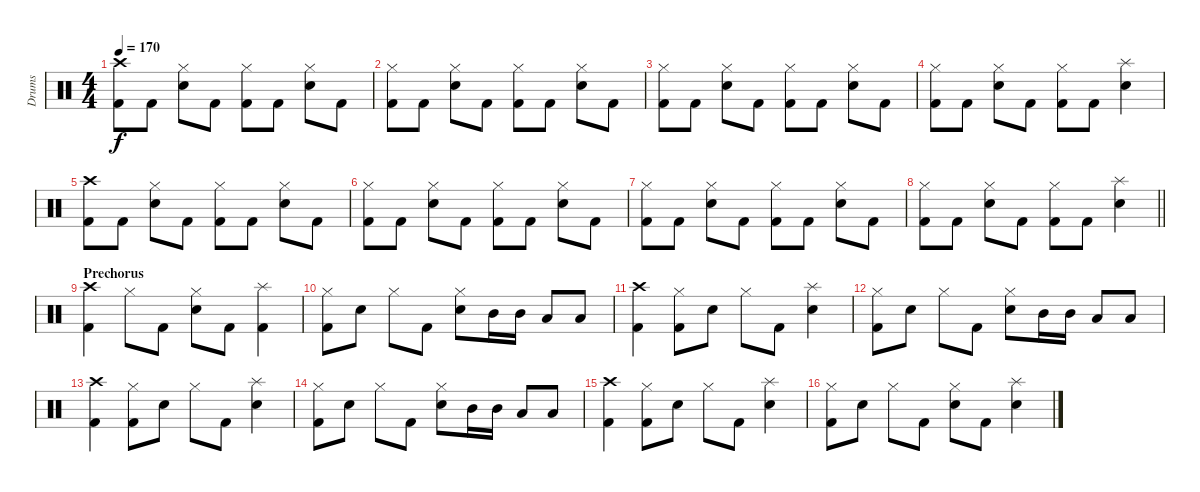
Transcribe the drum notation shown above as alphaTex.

\track ("Drums" "Drums") {instrument percussion}
\staff {score}
\articulation defaults
\ts (4 4)
\tempo 170
\clef neutral
\ks c
("Kick (hit) 2" "Crash high (hit)").8{dy f} "Kick (hit) 2".8 ("Hi-Hat (closed)" "Electric Snare (hit)").8 "Kick (hit) 2".8 ("Kick (hit) 2" "Hi-Hat (closed)").8 "Kick (hit) 2".8 ("Hi-Hat (closed)" "Electric Snare (hit)").8 "Kick (hit) 2".8 |
("Kick (hit) 2" "Hi-Hat (closed)").8 "Kick (hit) 2".8 ("Hi-Hat (closed)" "Electric Snare (hit)").8 "Kick (hit) 2".8 ("Kick (hit) 2" "Hi-Hat (closed)").8 "Kick (hit) 2".8 ("Hi-Hat (closed)" "Electric Snare (hit)").8 "Kick (hit) 2".8 |
("Kick (hit) 2" "Hi-Hat (closed)").8 "Kick (hit) 2".8 ("Hi-Hat (closed)" "Electric Snare (hit)").8 "Kick (hit) 2".8 ("Kick (hit) 2" "Hi-Hat (closed)").8 "Kick (hit) 2".8 ("Hi-Hat (closed)" "Electric Snare (hit)").8 "Kick (hit) 2".8 |
("Kick (hit) 2" "Hi-Hat (closed)").8 "Kick (hit) 2".8 ("Hi-Hat (closed)" "Electric Snare (hit)").8 "Kick (hit) 2".8 ("Kick (hit) 2" "Hi-Hat (closed)").8 "Kick (hit) 2".8 ("Splash (hit)" "Electric Snare (hit)").4 |
("Kick (hit) 2" "Crash high (hit)").8 "Kick (hit) 2".8 ("Hi-Hat (closed)" "Electric Snare (hit)").8 "Kick (hit) 2".8 ("Kick (hit) 2" "Hi-Hat (closed)").8 "Kick (hit) 2".8 ("Hi-Hat (closed)" "Electric Snare (hit)").8 "Kick (hit) 2".8 |
("Kick (hit) 2" "Hi-Hat (closed)").8 "Kick (hit) 2".8 ("Hi-Hat (closed)" "Electric Snare (hit)").8 "Kick (hit) 2".8 ("Kick (hit) 2" "Hi-Hat (closed)").8 "Kick (hit) 2".8 ("Hi-Hat (closed)" "Electric Snare (hit)").8 "Kick (hit) 2".8 |
("Kick (hit) 2" "Hi-Hat (closed)").8 "Kick (hit) 2".8 ("Hi-Hat (closed)" "Electric Snare (hit)").8 "Kick (hit) 2".8 ("Kick (hit) 2" "Hi-Hat (closed)").8 "Kick (hit) 2".8 ("Hi-Hat (closed)" "Electric Snare (hit)").8 "Kick (hit) 2".8 |
\barLineRight lightlight
("Kick (hit) 2" "Hi-Hat (closed)").8 "Kick (hit) 2".8 ("Hi-Hat (closed)" "Electric Snare (hit)").8 "Kick (hit) 2".8 ("Kick (hit) 2" "Hi-Hat (closed)").8 "Kick (hit) 2".8 ("Splash (hit)" "Electric Snare (hit)").4 |
\section ("" "Prechorus")
("Kick (hit) 2" "Crash high (hit)").4 "Hi-Hat (closed)".8 "Kick (hit) 2".8 ("Hi-Hat (closed)" "Electric Snare (hit)").8 "Kick (hit) 2".8 ("Kick (hit) 2" "Splash (hit)").4 |
("Kick (hit) 2" "Hi-Hat (closed)").8 "Electric Snare (hit)".8 "Hi-Hat (closed)".8 "Kick (hit) 2".8 ("Hi-Hat (closed)" "Electric Snare (hit)").8 "Mid Tom (hit)".16 "Mid Tom (hit)".16 "Low Tom (hit)".8 "Low Tom (hit)".8 |
("Kick (hit) 2" "Crash high (hit)").4 ("Kick (hit) 2" "Hi-Hat (closed)").8 "Electric Snare (hit)".8 "Hi-Hat (closed)".8 "Kick (hit) 2".8 ("Splash (hit)" "Electric Snare (hit)").4 |
("Kick (hit) 2" "Hi-Hat (closed)").8 "Electric Snare (hit)".8 "Hi-Hat (closed)".8 "Kick (hit) 2".8 ("Hi-Hat (closed)" "Electric Snare (hit)").8 "Mid Tom (hit)".16 "Mid Tom (hit)".16 "Low Tom (hit)".8 "Low Tom (hit)".8 |
("Kick (hit) 2" "Crash high (hit)").4 ("Kick (hit) 2" "Hi-Hat (closed)").8 "Electric Snare (hit)".8 "Hi-Hat (closed)".8 "Kick (hit) 2".8 ("Splash (hit)" "Electric Snare (hit)").4 |
("Kick (hit) 2" "Hi-Hat (closed)").8 "Electric Snare (hit)".8 "Hi-Hat (closed)".8 "Kick (hit) 2".8 ("Hi-Hat (closed)" "Electric Snare (hit)").8 "Mid Tom (hit)".16 "Mid Tom (hit)".16 "Low Tom (hit)".8 "Low Tom (hit)".8 |
("Kick (hit) 2" "Crash high (hit)").4 ("Kick (hit) 2" "Hi-Hat (closed)").8 "Electric Snare (hit)".8 "Hi-Hat (closed)".8 "Kick (hit) 2".8 ("Splash (hit)" "Electric Snare (hit)").4 |
("Kick (hit) 2" "Hi-Hat (closed)").8 "Electric Snare (hit)".8 "Hi-Hat (closed)".8 "Kick (hit) 2".8 ("Hi-Hat (closed)" "Electric Snare (hit)").8 "Kick (hit) 2".8 ("Splash (hit)" "Electric Snare (hit)").4
